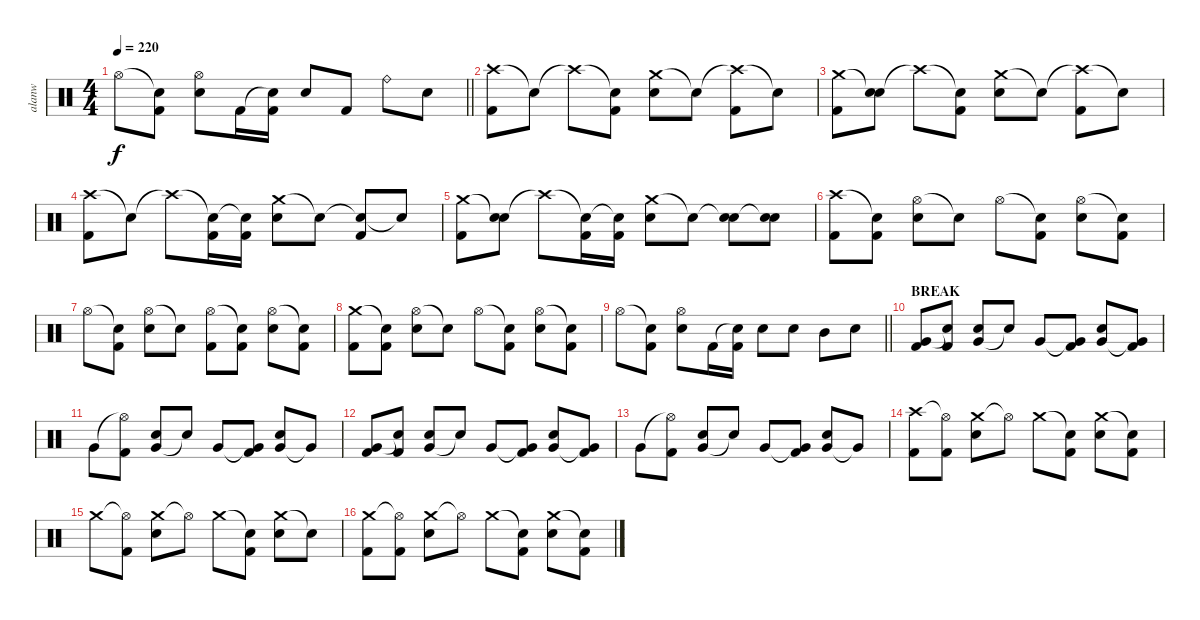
\track ("alanw" "alanw") {instrument percussion}
\staff {score}
\articulation defaults
\ts (4 4)
\tempo 220
\clef neutral
\barLineRight lightlight
\ks c "Hi-Hat (open)".8{dy f}
("Snare (hit)"{t} "Kick (hit) 2").8 ("Hi-Hat (open)" "Electric Snare (hit)").8 "Kick (hit) 2".16 ("Snare (hit)"{t} "Kick (hit) 2").16 "Electric Snare (hit)".8 "Kick (hit) 2".8 "Ride (bell)".8 "Electric Snare (hit)".8 |
\section ("" ".")
("Crash high (hit)" "Kick (hit) 2").8 "Snare (hit)"{t}.8 "Crash high (hit)"{t}.8 ("Snare (hit)"{t} "Kick (hit) 2").8 ("Crash medium (hit)" "Electric Snare (hit)").8 "Snare (hit)"{t}.8 ("Crash high (hit)"{t} "Kick (hit) 2").8 "Snare (hit)"{t}.8 |
("Crash medium (hit)" "Kick (hit) 2").8 ("Snare (hit)"{t} "Electric Snare (hit)").8 "Crash high (hit)"{t}.8 ("Snare (hit)"{t} "Kick (hit) 2").8 ("Crash medium (hit)" "Electric Snare (hit)").8 "Snare (hit)"{t}.8 ("Crash high (hit)"{t} "Kick (hit) 2").8 "Snare (hit)"{t}.8 |
("Crash high (hit)" "Kick (hit) 2").8 "Snare (hit)"{t}.8 "Crash high (hit)"{t}.8 ("Snare (hit)"{t} "Kick (hit) 2").16 ("Snare (hit)"{t} "Kick (hit) 2").16 ("Crash medium (hit)" "Electric Snare (hit)").8 "Snare (hit)"{t}.8 ("Snare (hit)"{t} "Kick (hit) 2").8 "Snare (hit)"{t}.8 |
("Crash medium (hit)" "Kick (hit) 2").8 ("Snare (hit)"{t} "Electric Snare (hit)").8 "Crash high (hit)"{t}.8 ("Snare (hit)"{t} "Kick (hit) 2").16 ("Snare (hit)"{t} "Kick (hit) 2").16 ("Crash medium (hit)" "Electric Snare (hit)").8 "Snare (hit)"{t}.8 ("Snare (hit)"{t} "Electric Snare (hit)").8 ("Snare (hit)"{t} "Electric Snare (hit)").8 |
("Crash high (hit)" "Kick (hit) 2").8 ("Snare (hit)"{t} "Kick (hit) 2").8 ("Hi-Hat (open)" "Electric Snare (hit)").8 "Snare (hit)"{t}.8 "Hi-Hat (open)".8 ("Snare (hit)"{t} "Kick (hit) 2").8 ("Hi-Hat (open)" "Electric Snare (hit)").8 ("Snare (hit)"{t} "Kick (hit) 2").8 |
"Hi-Hat (open)".8 ("Snare (hit)"{t} "Kick (hit) 2").8 ("Hi-Hat (open)" "Electric Snare (hit)").8 "Snare (hit)"{t}.8 ("Hi-Hat (open)" "Kick (hit) 2").8 ("Snare (hit)"{t} "Kick (hit) 2").8 ("Hi-Hat (open)" "Electric Snare (hit)").8 ("Snare (hit)"{t} "Kick (hit) 2").8 |
("Crash medium (hit)" "Kick (hit) 2").8 ("Snare (hit)"{t} "Kick (hit) 2").8 ("Hi-Hat (open)" "Electric Snare (hit)").8 "Snare (hit)"{t}.8 "Hi-Hat (open)".8 ("Snare (hit)"{t} "Kick (hit) 2").8 ("Hi-Hat (open)" "Electric Snare (hit)").8 ("Snare (hit)"{t} "Kick (hit) 2").8 |
\barLineRight lightlight "Hi-Hat (open)".8
("Snare (hit)"{t} "Kick (hit) 2").8 ("Hi-Hat (open)" "Electric Snare (hit)").8 "Kick (hit) 2".16 ("Snare (hit)"{t} "Kick (hit) 2").16 "Electric Snare (hit)".8 "Electric Snare (hit)".8 "Mid Tom (hit)".8 "Electric Snare (hit)".8 |
\section ("" "BREAK")
("Very Low Tom (hit)" "Kick (hit) 2").8 ("Snare (hit)"{t} "Kick (hit) 2").8 ("Very Low Tom (hit)" "Electric Snare (hit)").8 "Snare (hit)"{t}.8 "Very Low Tom (hit)".8 ("Very Low Tom (hit)"{t} "Kick (hit) 2").8 ("Very Low Tom (hit)" "Electric Snare (hit)").8 ("Very Low Tom (hit)"{t} "Kick (hit) 2").8 |
"Very Low Tom (hit)".8 ("Hi-Hat (open)"{t} "Kick (hit) 2").8 ("Very Low Tom (hit)" "Electric Snare (hit)").8 "Snare (hit)"{t}.8 "Very Low Tom (hit)".8 ("Very Low Tom (hit)"{t} "Kick (hit) 2").8 ("Very Low Tom (hit)" "Electric Snare (hit)").8 "Very Low Tom (hit)"{t}.8 |
("Very Low Tom (hit)" "Kick (hit) 2").8 ("Snare (hit)"{t} "Kick (hit) 2").8 ("Very Low Tom (hit)" "Electric Snare (hit)").8 "Snare (hit)"{t}.8 "Very Low Tom (hit)".8 ("Very Low Tom (hit)"{t} "Kick (hit) 2").8 ("Very Low Tom (hit)" "Electric Snare (hit)").8 ("Very Low Tom (hit)"{t} "Kick (hit) 2").8 |
"Very Low Tom (hit)".8 ("Hi-Hat (open)"{t} "Kick (hit) 2").8 ("Very Low Tom (hit)" "Electric Snare (hit)").8 "Snare (hit)"{t}.8 "Very Low Tom (hit)".8 ("Very Low Tom (hit)"{t} "Kick (hit) 2").8 ("Very Low Tom (hit)" "Electric Snare (hit)").8 "Very Low Tom (hit)"{t}.8 |
("Crash high (hit)" "Kick (hit) 2").8 ("Hi-Hat (open)"{t} "Kick (hit) 2").8 ("Crash medium (hit)" "Electric Snare (hit)").8 "Hi-Hat (open)"{t}.8 "Crash medium (hit)".8 ("Snare (hit)"{t} "Kick (hit) 2").8 ("Crash medium (hit)" "Electric Snare (hit)").8 ("Snare (hit)"{t} "Kick (hit) 2").8 |
"Crash medium (hit)".8 ("Hi-Hat (open)"{t} "Kick (hit) 2").8 ("Crash medium (hit)" "Electric Snare (hit)").8 "Hi-Hat (open)"{t}.8 "Crash medium (hit)".8 ("Snare (hit)"{t} "Kick (hit) 2").8 ("Crash medium (hit)" "Electric Snare (hit)").8 "Snare (hit)"{t}.8 |
("Crash medium (hit)" "Kick (hit) 2").8 ("Hi-Hat (open)"{t} "Kick (hit) 2").8 ("Crash medium (hit)" "Electric Snare (hit)").8 "Hi-Hat (open)"{t}.8 "Crash medium (hit)".8 ("Snare (hit)"{t} "Kick (hit) 2").8 ("Crash medium (hit)" "Electric Snare (hit)").8 ("Snare (hit)"{t} "Kick (hit) 2").8
